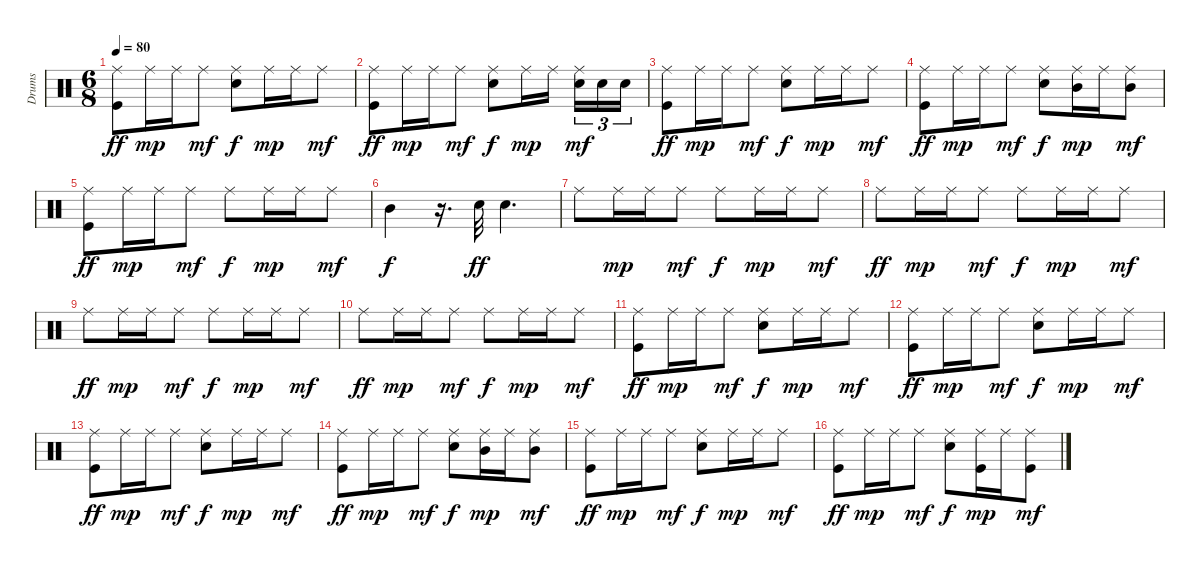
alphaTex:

\track ("Drums" "Drums") {instrument percussion}
\staff {score}
\articulation defaults
\ts (6 8)
\tempo 80
\clef neutral
\ks c
("Kick (hit)" "Ride (middle)").8{dy ff} "Ride (middle)".16{dy mp} "Ride (middle)".16 "Ride (middle)".8{dy mf} ("Ride (middle)" "Snare (hit) 2").8{dy f} "Ride (middle)".16{dy mp} "Ride (middle)".16 "Ride (middle)".8{dy mf} |
("Kick (hit)" "Ride (middle)").8{dy ff} "Ride (middle)".16{dy mp} "Ride (middle)".16 "Ride (middle)".8{dy mf} ("Ride (middle)" "Snare (hit) 2").8{dy f} "Ride (middle)".16{dy mp} "Ride (middle)".16 ("Ride (middle)" "Snare (hit) 2").16{tu (3 2) dy mf} "Snare (hit) 2".16{tu (3 2)} "Snare (hit) 2".16{tu (3 2)} |
("Kick (hit)" "Ride (middle)").8{dy ff} "Ride (middle)".16{dy mp} "Ride (middle)".16 "Ride (middle)".8{dy mf} ("Ride (middle)" "Snare (hit) 2").8{dy f} "Ride (middle)".16{dy mp} "Ride (middle)".16 "Ride (middle)".8{dy mf} |
("Kick (hit)" "Ride (middle)").8{dy ff} "Ride (middle)".16{dy mp} "Ride (middle)".16 "Ride (middle)".8{dy mf} ("Ride (middle)" "Snare (hit) 2").8{dy f} ("Ride (middle)" "Mid Tom (hit)").16{dy mp} "Ride (middle)".16 ("Ride (middle)" "Mid Tom (hit)").8{dy mf} |
("Kick (hit)" "Ride (middle)").8{dy ff} "Ride (middle)".16{dy mp} "Ride (middle)".16 "Ride (middle)".8{dy mf} "Ride (middle)".8{dy f} "Ride (middle)".16{dy mp} "Ride (middle)".16 "Ride (middle)".8{dy mf} |
"Mid Tom (hit)".4{dy f} r.16{d} "Snare (hit) 2".32{dy ff} "Snare (hit) 2".4{d} |
"Ride (middle)".8 "Ride (middle)".16{dy mp} "Ride (middle)".16 "Ride (middle)".8{dy mf} "Ride (middle)".8{dy f} "Ride (middle)".16{dy mp} "Ride (middle)".16 "Ride (middle)".8{dy mf} |
"Ride (middle)".8{dy ff} "Ride (middle)".16{dy mp} "Ride (middle)".16 "Ride (middle)".8{dy mf} "Ride (middle)".8{dy f} "Ride (middle)".16{dy mp} "Ride (middle)".16 "Ride (middle)".8{dy mf} |
"Ride (middle)".8{dy ff} "Ride (middle)".16{dy mp} "Ride (middle)".16 "Ride (middle)".8{dy mf} "Ride (middle)".8{dy f} "Ride (middle)".16{dy mp} "Ride (middle)".16 "Ride (middle)".8{dy mf} |
"Ride (middle)".8{dy ff} "Ride (middle)".16{dy mp} "Ride (middle)".16 "Ride (middle)".8{dy mf} "Ride (middle)".8{dy f} "Ride (middle)".16{dy mp} "Ride (middle)".16 "Ride (middle)".8{dy mf} |
("Kick (hit)" "Ride (middle)").8{dy ff} "Ride (middle)".16{dy mp} "Ride (middle)".16 "Ride (middle)".8{dy mf} ("Ride (middle)" "Snare (hit) 2").8{dy f} "Ride (middle)".16{dy mp} "Ride (middle)".16 "Ride (middle)".8{dy mf} |
("Kick (hit)" "Ride (middle)").8{dy ff} "Ride (middle)".16{dy mp} "Ride (middle)".16 "Ride (middle)".8{dy mf} ("Ride (middle)" "Snare (hit) 2").8{dy f} "Ride (middle)".16{dy mp} "Ride (middle)".16 "Ride (middle)".8{dy mf} |
("Kick (hit)" "Ride (middle)").8{dy ff} "Ride (middle)".16{dy mp} "Ride (middle)".16 "Ride (middle)".8{dy mf} ("Ride (middle)" "Snare (hit) 2").8{dy f} "Ride (middle)".16{dy mp} "Ride (middle)".16 "Ride (middle)".8{dy mf} |
("Kick (hit)" "Ride (middle)").8{dy ff} "Ride (middle)".16{dy mp} "Ride (middle)".16 "Ride (middle)".8{dy mf} ("Ride (middle)" "Snare (hit) 2").8{dy f} ("Ride (middle)" "Mid Tom (hit)").16{dy mp} "Ride (middle)".16 ("Ride (middle)" "Mid Tom (hit)").8{dy mf} |
("Kick (hit)" "Ride (middle)").8{dy ff} "Ride (middle)".16{dy mp} "Ride (middle)".16 "Ride (middle)".8{dy mf} ("Ride (middle)" "Snare (hit) 2").8{dy f} "Ride (middle)".16{dy mp} "Ride (middle)".16 "Ride (middle)".8{dy mf} |
("Kick (hit)" "Ride (middle)").8{dy ff} "Ride (middle)".16{dy mp} "Ride (middle)".16 "Ride (middle)".8{dy mf} ("Ride (middle)" "Snare (hit) 2").8{dy f} ("Ride (middle)" "Kick (hit)").16{dy mp} "Ride (middle)".16 ("Ride (middle)" "Kick (hit)").8{dy mf}
